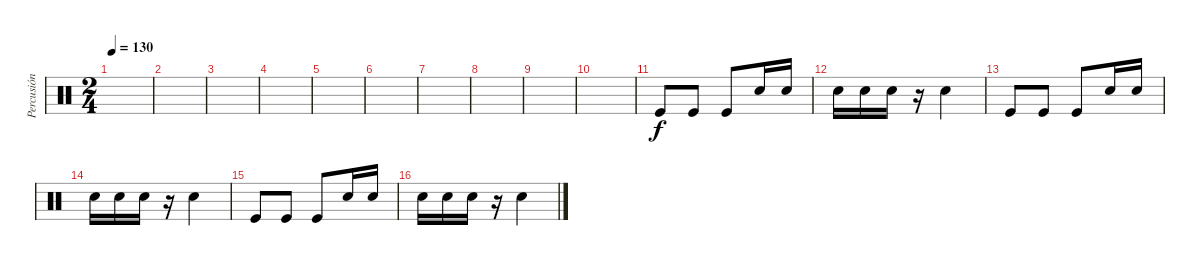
\track ("Percusión" "Percusión") {instrument percussion}
\staff {score}
\articulation defaults
\ts (2 4)
\tempo 130
\clef neutral
\ks c
|
|
|
|
|
|
|
|
|
|
"Kick (hit)".8 "Kick (hit)".8 "Kick (hit)".8 "Snare (hit) 2".16 "Snare (hit) 2".16 |
"Snare (hit) 2".16 "Snare (hit) 2".16 "Snare (hit) 2".16 r.16 "Snare (hit) 2".4 |
"Kick (hit)".8 "Kick (hit)".8 "Kick (hit)".8 "Snare (hit) 2".16 "Snare (hit) 2".16 |
"Snare (hit) 2".16 "Snare (hit) 2".16 "Snare (hit) 2".16 r.16 "Snare (hit) 2".4 |
"Kick (hit)".8 "Kick (hit)".8 "Kick (hit)".8 "Snare (hit) 2".16 "Snare (hit) 2".16 |
"Snare (hit) 2".16 "Snare (hit) 2".16 "Snare (hit) 2".16 r.16 "Snare (hit) 2".4
